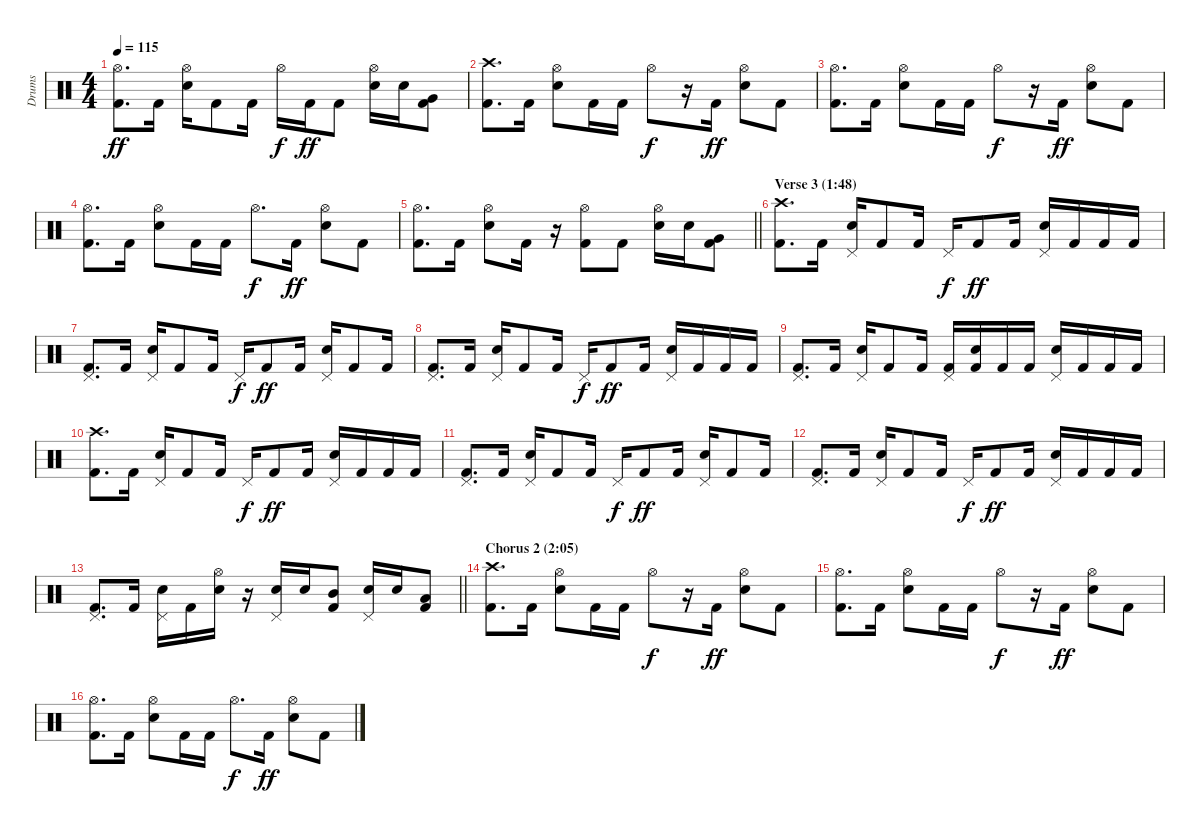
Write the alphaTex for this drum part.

\track ("Drums" "Drums") {instrument percussion}
\staff {score}
\articulation defaults
\ts (4 4)
\tempo 115
\clef neutral
\ks c
("Hi-Hat (open)" "Kick (hit) 2").8{d dy ff} "Kick (hit) 2".16 ("Hi-Hat (open)" "Snare (hit) 2").16 "Kick (hit) 2".8 "Kick (hit) 2".16 "Hi-Hat (open)".16{dy f} "Kick (hit) 2".16{dy ff} "Kick (hit) 2".8 ("Hi-Hat (open)" "Snare (hit) 2").16 "Snare (hit) 2".16 ("Very Low Tom (hit)" "Kick (hit) 2").8 |
("Crash high (hit)" "Kick (hit) 2").8{d} "Kick (hit) 2".16 ("Hi-Hat (open)" "Snare (hit) 2").8 "Kick (hit) 2".16 "Kick (hit) 2".16 "Hi-Hat (open)".8{dy f} r.16 "Kick (hit) 2".16{dy ff} ("Hi-Hat (open)" "Snare (hit) 2").8 "Kick (hit) 2".8 |
("Hi-Hat (open)" "Kick (hit) 2").8{d} "Kick (hit) 2".16 ("Hi-Hat (open)" "Snare (hit) 2").8 "Kick (hit) 2".16 "Kick (hit) 2".16 "Hi-Hat (open)".8{dy f} r.16 "Kick (hit) 2".16{dy ff} ("Hi-Hat (open)" "Snare (hit) 2").8 "Kick (hit) 2".8 |
("Hi-Hat (open)" "Kick (hit) 2").8{d} "Kick (hit) 2".16 ("Hi-Hat (open)" "Snare (hit) 2").8 "Kick (hit) 2".16 "Kick (hit) 2".16 "Hi-Hat (open)".8{d dy f} "Kick (hit) 2".16{dy ff} ("Hi-Hat (open)" "Snare (hit) 2").8 "Kick (hit) 2".8 |
\barLineRight lightlight
("Hi-Hat (open)" "Kick (hit) 2").8{d} "Kick (hit) 2".16 ("Hi-Hat (open)" "Snare (hit) 2").8 "Kick (hit) 2".16 r.16 ("Hi-Hat (open)" "Kick (hit) 2").8 "Kick (hit) 2".8 ("Hi-Hat (open)" "Snare (hit) 2").16 "Snare (hit) 2".16 ("Very Low Tom (hit)" "Kick (hit) 2").8 |
\section ("" "Verse 3 (1:48)")
("Crash high (hit)" "Kick (hit) 2").8{d} "Kick (hit) 2".16 ("Pedal Hi-Hat (hit)" "Snare (hit) 2").16 "Kick (hit) 2".8 "Kick (hit) 2".16 "Pedal Hi-Hat (hit)".16{dy f} "Kick (hit) 2".8{dy ff} "Kick (hit) 2".16 ("Pedal Hi-Hat (hit)" "Snare (hit) 2").16 "Kick (hit) 2".16 "Kick (hit) 2".16 "Kick (hit) 2".16 |
("Pedal Hi-Hat (hit)" "Kick (hit) 2").8{d} "Kick (hit) 2".16 ("Pedal Hi-Hat (hit)" "Snare (hit) 2").16 "Kick (hit) 2".8 "Kick (hit) 2".16 "Pedal Hi-Hat (hit)".16{dy f} "Kick (hit) 2".8{dy ff} "Kick (hit) 2".16 ("Pedal Hi-Hat (hit)" "Snare (hit) 2").16 "Kick (hit) 2".8 "Kick (hit) 2".16 |
("Pedal Hi-Hat (hit)" "Kick (hit) 2").8{d} "Kick (hit) 2".16 ("Pedal Hi-Hat (hit)" "Snare (hit) 2").16 "Kick (hit) 2".8 "Kick (hit) 2".16 "Pedal Hi-Hat (hit)".16{dy f} "Kick (hit) 2".8{dy ff} "Kick (hit) 2".16 ("Pedal Hi-Hat (hit)" "Snare (hit) 2").16 "Kick (hit) 2".16 "Kick (hit) 2".16 "Kick (hit) 2".16 |
("Pedal Hi-Hat (hit)" "Kick (hit) 2").8{d} "Kick (hit) 2".16 ("Pedal Hi-Hat (hit)" "Snare (hit) 2").16 "Kick (hit) 2".8 "Kick (hit) 2".16 ("Pedal Hi-Hat (hit)" "Kick (hit) 2").16 ("Snare (hit) 2" "Kick (hit) 2").16 "Kick (hit) 2".16 "Kick (hit) 2".16 ("Pedal Hi-Hat (hit)" "Snare (hit) 2").16 "Kick (hit) 2".16 "Kick (hit) 2".16 "Kick (hit) 2".16 |
("Crash high (hit)" "Kick (hit) 2").8{d} "Kick (hit) 2".16 ("Pedal Hi-Hat (hit)" "Snare (hit) 2").16 "Kick (hit) 2".8 "Kick (hit) 2".16 "Pedal Hi-Hat (hit)".16{dy f} "Kick (hit) 2".8{dy ff} "Kick (hit) 2".16 ("Pedal Hi-Hat (hit)" "Snare (hit) 2").16 "Kick (hit) 2".16 "Kick (hit) 2".16 "Kick (hit) 2".16 |
("Pedal Hi-Hat (hit)" "Kick (hit) 2").8{d} "Kick (hit) 2".16 ("Pedal Hi-Hat (hit)" "Snare (hit) 2").16 "Kick (hit) 2".8 "Kick (hit) 2".16 "Pedal Hi-Hat (hit)".16{dy f} "Kick (hit) 2".8{dy ff} "Kick (hit) 2".16 ("Pedal Hi-Hat (hit)" "Snare (hit) 2").16 "Kick (hit) 2".8 "Kick (hit) 2".16 |
("Pedal Hi-Hat (hit)" "Kick (hit) 2").8{d} "Kick (hit) 2".16 ("Pedal Hi-Hat (hit)" "Snare (hit) 2").16 "Kick (hit) 2".8 "Kick (hit) 2".16 "Pedal Hi-Hat (hit)".16{dy f} "Kick (hit) 2".8{dy ff} "Kick (hit) 2".16 ("Pedal Hi-Hat (hit)" "Snare (hit) 2").16 "Kick (hit) 2".16 "Kick (hit) 2".16 "Kick (hit) 2".16 |
\barLineRight lightlight
("Pedal Hi-Hat (hit)" "Kick (hit) 2").8{d} "Kick (hit) 2".16 ("Pedal Hi-Hat (hit)" "Snare (hit) 2").16 "Kick (hit) 2".16 ("Hi-Hat (open)" "Snare (hit) 2").16 r.16 ("Pedal Hi-Hat (hit)" "Snare (hit) 2").16 "Snare (hit) 2".16 ("Mid Tom (hit)" "Kick (hit) 2").8 ("Pedal Hi-Hat (hit)" "Snare (hit) 2").16 "Snare (hit) 2".16 ("Low Tom (hit)" "Kick (hit) 2").8 |
\section ("" "Chorus 2 (2:05)")
("Crash high (hit)" "Kick (hit) 2").8{d} "Kick (hit) 2".16 ("Hi-Hat (open)" "Snare (hit) 2").8 "Kick (hit) 2".16 "Kick (hit) 2".16 "Hi-Hat (open)".8{dy f} r.16 "Kick (hit) 2".16{dy ff} ("Hi-Hat (open)" "Snare (hit) 2").8 "Kick (hit) 2".8 |
("Hi-Hat (open)" "Kick (hit) 2").8{d} "Kick (hit) 2".16 ("Hi-Hat (open)" "Snare (hit) 2").8 "Kick (hit) 2".16 "Kick (hit) 2".16 "Hi-Hat (open)".8{dy f} r.16 "Kick (hit) 2".16{dy ff} ("Hi-Hat (open)" "Snare (hit) 2").8 "Kick (hit) 2".8 |
("Hi-Hat (open)" "Kick (hit) 2").8{d} "Kick (hit) 2".16 ("Hi-Hat (open)" "Snare (hit) 2").8 "Kick (hit) 2".16 "Kick (hit) 2".16 "Hi-Hat (open)".8{d dy f} "Kick (hit) 2".16{dy ff} ("Hi-Hat (open)" "Snare (hit) 2").8 "Kick (hit) 2".8
